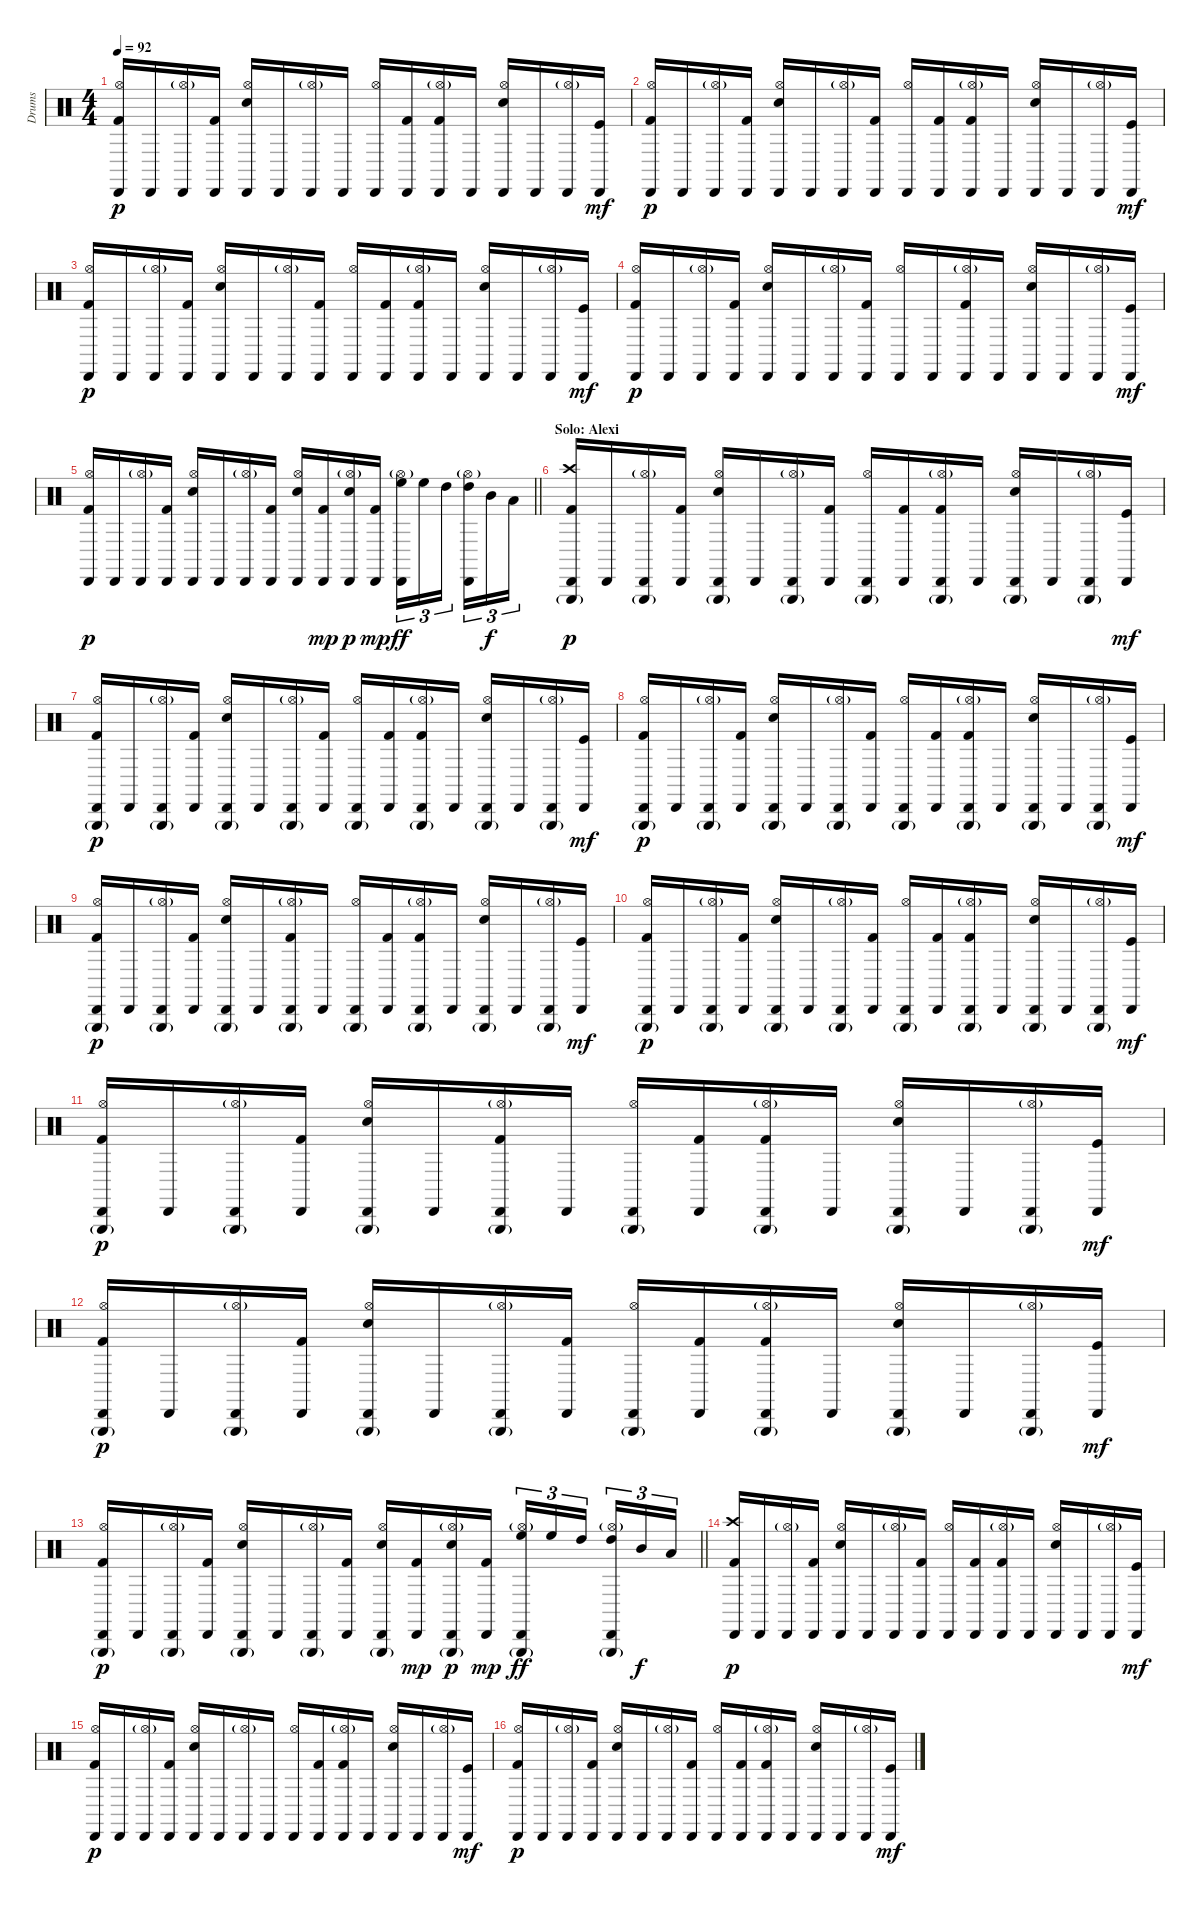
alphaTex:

\track ("Drums" "Drums") {instrument percussion}
\staff {score}
\articulation defaults
\ts (4 4)
\tempo 92
\clef neutral
\ks c
("Hi-Hat (open)" "Cabasa (hit)" "Kick (hit) 2").16{dy p} "Cabasa (hit)".16 ("Hi-Hat (open)"{g} "Cabasa (hit)").16 ("Cabasa (hit)" "Kick (hit) 2").16 ("Hi-Hat (open)" "Cabasa (hit)" "Electric Snare (hit)").16 "Cabasa (hit)".16 ("Hi-Hat (open)"{g} "Cabasa (hit)").16 "Cabasa (hit)".16 ("Hi-Hat (open)" "Cabasa (hit)").16 ("Cabasa (hit)" "Kick (hit) 2").16 ("Hi-Hat (open)"{g} "Cabasa (hit)" "Kick (hit) 2").16 "Cabasa (hit)".16 ("Hi-Hat (open)" "Cabasa (hit)" "Electric Snare (hit)").16 "Cabasa (hit)".16 ("Hi-Hat (open)"{g} "Cabasa (hit)").16 ("Cabasa (hit)" "Kick (hit)").16{dy mf} |
("Hi-Hat (open)" "Cabasa (hit)" "Kick (hit) 2").16{dy p} "Cabasa (hit)".16 ("Hi-Hat (open)"{g} "Cabasa (hit)").16 ("Cabasa (hit)" "Kick (hit) 2").16 ("Hi-Hat (open)" "Cabasa (hit)" "Electric Snare (hit)").16 "Cabasa (hit)".16 ("Hi-Hat (open)"{g} "Cabasa (hit)").16 ("Cabasa (hit)" "Kick (hit) 2").16 ("Hi-Hat (open)" "Cabasa (hit)").16 ("Cabasa (hit)" "Kick (hit) 2").16 ("Hi-Hat (open)"{g} "Cabasa (hit)" "Kick (hit) 2").16 "Cabasa (hit)".16 ("Hi-Hat (open)" "Cabasa (hit)" "Electric Snare (hit)").16 "Cabasa (hit)".16 ("Hi-Hat (open)"{g} "Cabasa (hit)").16 ("Cabasa (hit)" "Kick (hit)").16{dy mf} |
("Hi-Hat (open)" "Cabasa (hit)" "Kick (hit) 2").16{dy p} "Cabasa (hit)".16 ("Hi-Hat (open)"{g} "Cabasa (hit)").16 ("Cabasa (hit)" "Kick (hit) 2").16 ("Hi-Hat (open)" "Cabasa (hit)" "Electric Snare (hit)").16 "Cabasa (hit)".16 ("Hi-Hat (open)"{g} "Cabasa (hit)").16 ("Cabasa (hit)" "Kick (hit) 2").16 ("Hi-Hat (open)" "Cabasa (hit)").16 ("Cabasa (hit)" "Kick (hit) 2").16 ("Hi-Hat (open)"{g} "Cabasa (hit)" "Kick (hit) 2").16 "Cabasa (hit)".16 ("Hi-Hat (open)" "Cabasa (hit)" "Electric Snare (hit)").16 "Cabasa (hit)".16 ("Hi-Hat (open)"{g} "Cabasa (hit)").16 ("Cabasa (hit)" "Kick (hit)").16{dy mf} |
("Hi-Hat (open)" "Cabasa (hit)" "Kick (hit) 2").16{dy p} "Cabasa (hit)".16 ("Hi-Hat (open)"{g} "Cabasa (hit)").16 ("Cabasa (hit)" "Kick (hit) 2").16 ("Hi-Hat (open)" "Cabasa (hit)" "Electric Snare (hit)").16 "Cabasa (hit)".16 ("Hi-Hat (open)"{g} "Cabasa (hit)").16 ("Cabasa (hit)" "Kick (hit) 2").16 ("Hi-Hat (open)" "Cabasa (hit)").16 "Cabasa (hit)".16 ("Hi-Hat (open)"{g} "Cabasa (hit)" "Kick (hit) 2").16 "Cabasa (hit)".16 ("Hi-Hat (open)" "Cabasa (hit)" "Electric Snare (hit)").16 "Cabasa (hit)".16 ("Hi-Hat (open)"{g} "Cabasa (hit)").16 ("Cabasa (hit)" "Kick (hit)").16{dy mf} |
\barLineRight lightlight
("Hi-Hat (open)" "Cabasa (hit)" "Kick (hit) 2").16{dy p} "Cabasa (hit)".16 ("Hi-Hat (open)"{g} "Cabasa (hit)").16 ("Cabasa (hit)" "Kick (hit) 2").16 ("Hi-Hat (open)" "Cabasa (hit)" "Electric Snare (hit)").16 "Cabasa (hit)".16 ("Hi-Hat (open)"{g} "Cabasa (hit)").16 ("Cabasa (hit)" "Kick (hit) 2").16 ("Hi-Hat (open)" "Cabasa (hit)" "Electric Snare (hit)").16 ("Cabasa (hit)" "Kick (hit) 2").16{dy mp} ("Hi-Hat (open)"{g} "Cabasa (hit)" "Electric Snare (hit)").16{dy p} ("Cabasa (hit)" "Kick (hit) 2").16{dy mp} ("Hi-Hat (open)"{g} "Cabasa (hit)" "High Floor Tom (hit)").16{tu (3 2) dy ff} "High Floor Tom (hit)".16{tu (3 2)} "High Tom (hit)".16{tu (3 2)} ("Hi-Hat (open)"{g} "Cabasa (hit)" "High Tom (hit)").16{tu (3 2)} "Mid Tom (hit)".16{tu (3 2) dy f} "Low Tom (hit)".16{tu (3 2)} |
\section ("" "Solo: Alexi")
("Crash high (hit)" "Triangle (hit)"{g} "Cabasa (hit)" "Kick (hit) 2").16{dy p} "Cabasa (hit)".16 ("Triangle (hit)"{g} "Hi-Hat (open)"{g} "Cabasa (hit)").16 ("Cabasa (hit)" "Kick (hit) 2").16 ("Triangle (hit)"{g} "Hi-Hat (open)" "Cabasa (hit)" "Electric Snare (hit)").16 "Cabasa (hit)".16 ("Triangle (hit)"{g} "Hi-Hat (open)"{g} "Cabasa (hit)").16 ("Cabasa (hit)" "Kick (hit) 2").16 ("Triangle (hit)"{g} "Hi-Hat (open)" "Cabasa (hit)").16 ("Cabasa (hit)" "Kick (hit) 2").16 ("Triangle (hit)"{g} "Hi-Hat (open)"{g} "Cabasa (hit)" "Kick (hit) 2").16 "Cabasa (hit)".16 ("Triangle (hit)"{g} "Hi-Hat (open)" "Cabasa (hit)" "Electric Snare (hit)").16 "Cabasa (hit)".16 ("Triangle (hit)"{g} "Hi-Hat (open)"{g} "Cabasa (hit)").16 ("Cabasa (hit)" "Kick (hit)").16{dy mf} |
("Triangle (hit)"{g} "Hi-Hat (open)" "Cabasa (hit)" "Kick (hit) 2").16{dy p} "Cabasa (hit)".16 ("Triangle (hit)"{g} "Hi-Hat (open)"{g} "Cabasa (hit)").16 ("Cabasa (hit)" "Kick (hit) 2").16 ("Triangle (hit)"{g} "Hi-Hat (open)" "Cabasa (hit)" "Electric Snare (hit)").16 "Cabasa (hit)".16 ("Triangle (hit)"{g} "Hi-Hat (open)"{g} "Cabasa (hit)").16 ("Cabasa (hit)" "Kick (hit) 2").16 ("Triangle (hit)"{g} "Hi-Hat (open)" "Cabasa (hit)").16 ("Cabasa (hit)" "Kick (hit) 2").16 ("Triangle (hit)"{g} "Hi-Hat (open)"{g} "Cabasa (hit)" "Kick (hit) 2").16 "Cabasa (hit)".16 ("Triangle (hit)"{g} "Hi-Hat (open)" "Cabasa (hit)" "Electric Snare (hit)").16 "Cabasa (hit)".16 ("Triangle (hit)"{g} "Hi-Hat (open)"{g} "Cabasa (hit)").16 ("Cabasa (hit)" "Kick (hit)").16{dy mf} |
("Triangle (hit)"{g} "Hi-Hat (open)" "Cabasa (hit)" "Kick (hit) 2").16{dy p} "Cabasa (hit)".16 ("Triangle (hit)"{g} "Hi-Hat (open)"{g} "Cabasa (hit)").16 ("Cabasa (hit)" "Kick (hit) 2").16 ("Triangle (hit)"{g} "Hi-Hat (open)" "Cabasa (hit)" "Electric Snare (hit)").16 "Cabasa (hit)".16 ("Triangle (hit)"{g} "Hi-Hat (open)"{g} "Cabasa (hit)").16 ("Cabasa (hit)" "Kick (hit) 2").16 ("Triangle (hit)"{g} "Hi-Hat (open)" "Cabasa (hit)").16 ("Cabasa (hit)" "Kick (hit) 2").16 ("Triangle (hit)"{g} "Hi-Hat (open)"{g} "Cabasa (hit)" "Kick (hit) 2").16 "Cabasa (hit)".16 ("Triangle (hit)"{g} "Hi-Hat (open)" "Cabasa (hit)" "Electric Snare (hit)").16 "Cabasa (hit)".16 ("Triangle (hit)"{g} "Hi-Hat (open)"{g} "Cabasa (hit)").16 ("Cabasa (hit)" "Kick (hit)").16{dy mf} |
("Triangle (hit)"{g} "Hi-Hat (open)" "Cabasa (hit)" "Kick (hit) 2").16{dy p} "Cabasa (hit)".16 ("Triangle (hit)"{g} "Hi-Hat (open)"{g} "Cabasa (hit)").16 ("Cabasa (hit)" "Kick (hit) 2").16 ("Triangle (hit)"{g} "Hi-Hat (open)" "Cabasa (hit)" "Electric Snare (hit)").16 "Cabasa (hit)".16 ("Triangle (hit)"{g} "Hi-Hat (open)"{g} "Cabasa (hit)" "Kick (hit) 2").16 "Cabasa (hit)".16 ("Triangle (hit)"{g} "Hi-Hat (open)" "Cabasa (hit)").16 ("Cabasa (hit)" "Kick (hit) 2").16 ("Triangle (hit)"{g} "Hi-Hat (open)"{g} "Cabasa (hit)" "Kick (hit) 2").16 "Cabasa (hit)".16 ("Triangle (hit)"{g} "Hi-Hat (open)" "Cabasa (hit)" "Electric Snare (hit)").16 "Cabasa (hit)".16 ("Triangle (hit)"{g} "Hi-Hat (open)"{g} "Cabasa (hit)").16 ("Cabasa (hit)" "Kick (hit)").16{dy mf} |
("Triangle (hit)"{g} "Hi-Hat (open)" "Cabasa (hit)" "Kick (hit) 2").16{dy p} "Cabasa (hit)".16 ("Triangle (hit)"{g} "Hi-Hat (open)"{g} "Cabasa (hit)").16 ("Cabasa (hit)" "Kick (hit) 2").16 ("Triangle (hit)"{g} "Hi-Hat (open)" "Cabasa (hit)" "Electric Snare (hit)").16 "Cabasa (hit)".16 ("Triangle (hit)"{g} "Hi-Hat (open)"{g} "Cabasa (hit)").16 ("Cabasa (hit)" "Kick (hit) 2").16 ("Triangle (hit)"{g} "Hi-Hat (open)" "Cabasa (hit)").16 ("Cabasa (hit)" "Kick (hit) 2").16 ("Triangle (hit)"{g} "Hi-Hat (open)"{g} "Cabasa (hit)" "Kick (hit) 2").16 "Cabasa (hit)".16 ("Triangle (hit)"{g} "Hi-Hat (open)" "Cabasa (hit)" "Electric Snare (hit)").16 "Cabasa (hit)".16 ("Triangle (hit)"{g} "Hi-Hat (open)"{g} "Cabasa (hit)").16 ("Cabasa (hit)" "Kick (hit)").16{dy mf} |
("Triangle (hit)"{g} "Hi-Hat (open)" "Cabasa (hit)" "Kick (hit) 2").16{dy p} "Cabasa (hit)".16 ("Triangle (hit)"{g} "Hi-Hat (open)"{g} "Cabasa (hit)").16 ("Cabasa (hit)" "Kick (hit) 2").16 ("Triangle (hit)"{g} "Hi-Hat (open)" "Cabasa (hit)" "Electric Snare (hit)").16 "Cabasa (hit)".16 ("Triangle (hit)"{g} "Hi-Hat (open)"{g} "Cabasa (hit)" "Kick (hit) 2").16 "Cabasa (hit)".16 ("Triangle (hit)"{g} "Hi-Hat (open)" "Cabasa (hit)").16 ("Cabasa (hit)" "Kick (hit) 2").16 ("Triangle (hit)"{g} "Hi-Hat (open)"{g} "Cabasa (hit)" "Kick (hit) 2").16 "Cabasa (hit)".16 ("Triangle (hit)"{g} "Hi-Hat (open)" "Cabasa (hit)" "Electric Snare (hit)").16 "Cabasa (hit)".16 ("Triangle (hit)"{g} "Hi-Hat (open)"{g} "Cabasa (hit)").16 ("Cabasa (hit)" "Kick (hit)").16{dy mf} |
("Triangle (hit)"{g} "Hi-Hat (open)" "Cabasa (hit)" "Kick (hit) 2").16{dy p} "Cabasa (hit)".16 ("Triangle (hit)"{g} "Hi-Hat (open)"{g} "Cabasa (hit)").16 ("Cabasa (hit)" "Kick (hit) 2").16 ("Triangle (hit)"{g} "Hi-Hat (open)" "Cabasa (hit)" "Electric Snare (hit)").16 "Cabasa (hit)".16 ("Triangle (hit)"{g} "Hi-Hat (open)"{g} "Cabasa (hit)").16 ("Cabasa (hit)" "Kick (hit) 2").16 ("Triangle (hit)"{g} "Hi-Hat (open)" "Cabasa (hit)").16 ("Cabasa (hit)" "Kick (hit) 2").16 ("Triangle (hit)"{g} "Hi-Hat (open)"{g} "Cabasa (hit)" "Kick (hit) 2").16 "Cabasa (hit)".16 ("Triangle (hit)"{g} "Hi-Hat (open)" "Cabasa (hit)" "Electric Snare (hit)").16 "Cabasa (hit)".16 ("Triangle (hit)"{g} "Hi-Hat (open)"{g} "Cabasa (hit)").16 ("Cabasa (hit)" "Kick (hit)").16{dy mf} |
\barLineRight lightlight
("Triangle (hit)"{g} "Hi-Hat (open)" "Cabasa (hit)" "Kick (hit) 2").16{dy p} "Cabasa (hit)".16 ("Triangle (hit)"{g} "Hi-Hat (open)"{g} "Cabasa (hit)").16 ("Cabasa (hit)" "Kick (hit) 2").16 ("Triangle (hit)"{g} "Hi-Hat (open)" "Cabasa (hit)" "Electric Snare (hit)").16 "Cabasa (hit)".16 ("Triangle (hit)"{g} "Hi-Hat (open)"{g} "Cabasa (hit)").16 ("Cabasa (hit)" "Kick (hit) 2").16 ("Triangle (hit)"{g} "Hi-Hat (open)" "Cabasa (hit)" "Electric Snare (hit)").16 ("Cabasa (hit)" "Kick (hit) 2").16{dy mp} ("Triangle (hit)"{g} "Hi-Hat (open)"{g} "Cabasa (hit)" "Electric Snare (hit)").16{dy p} ("Cabasa (hit)" "Kick (hit) 2").16{dy mp} ("Triangle (hit)"{g} "Hi-Hat (open)"{g} "Cabasa (hit)" "High Floor Tom (hit)").16{tu (3 2) dy ff} "High Floor Tom (hit)".16{tu (3 2)} "High Tom (hit)".16{tu (3 2)} ("Triangle (hit)"{g} "Hi-Hat (open)"{g} "Cabasa (hit)" "High Tom (hit)").16{tu (3 2)} "Mid Tom (hit)".16{tu (3 2) dy f} "Low Tom (hit)".16{tu (3 2)} |
("Crash high (hit)" "Cabasa (hit)" "Kick (hit) 2").16{dy p} "Cabasa (hit)".16 ("Hi-Hat (open)"{g} "Cabasa (hit)").16 ("Cabasa (hit)" "Kick (hit) 2").16 ("Hi-Hat (open)" "Cabasa (hit)" "Electric Snare (hit)").16 "Cabasa (hit)".16 ("Hi-Hat (open)"{g} "Cabasa (hit)").16 ("Cabasa (hit)" "Kick (hit) 2").16 ("Hi-Hat (open)" "Cabasa (hit)").16 ("Cabasa (hit)" "Kick (hit) 2").16 ("Hi-Hat (open)"{g} "Cabasa (hit)" "Kick (hit) 2").16 "Cabasa (hit)".16 ("Hi-Hat (open)" "Cabasa (hit)" "Electric Snare (hit)").16 "Cabasa (hit)".16 ("Hi-Hat (open)"{g} "Cabasa (hit)").16 ("Cabasa (hit)" "Kick (hit)").16{dy mf} |
("Hi-Hat (open)" "Cabasa (hit)" "Kick (hit) 2").16{dy p} "Cabasa (hit)".16 ("Hi-Hat (open)"{g} "Cabasa (hit)").16 ("Cabasa (hit)" "Kick (hit) 2").16 ("Hi-Hat (open)" "Cabasa (hit)" "Electric Snare (hit)").16 "Cabasa (hit)".16 ("Hi-Hat (open)"{g} "Cabasa (hit)").16 "Cabasa (hit)".16 ("Hi-Hat (open)" "Cabasa (hit)").16 ("Cabasa (hit)" "Kick (hit) 2").16 ("Hi-Hat (open)"{g} "Cabasa (hit)" "Kick (hit) 2").16 "Cabasa (hit)".16 ("Hi-Hat (open)" "Cabasa (hit)" "Electric Snare (hit)").16 "Cabasa (hit)".16 ("Hi-Hat (open)"{g} "Cabasa (hit)").16 ("Cabasa (hit)" "Kick (hit)").16{dy mf} |
("Hi-Hat (open)" "Cabasa (hit)" "Kick (hit) 2").16{dy p} "Cabasa (hit)".16 ("Hi-Hat (open)"{g} "Cabasa (hit)").16 ("Cabasa (hit)" "Kick (hit) 2").16 ("Hi-Hat (open)" "Cabasa (hit)" "Electric Snare (hit)").16 "Cabasa (hit)".16 ("Hi-Hat (open)"{g} "Cabasa (hit)").16 ("Cabasa (hit)" "Kick (hit) 2").16 ("Hi-Hat (open)" "Cabasa (hit)").16 ("Cabasa (hit)" "Kick (hit) 2").16 ("Hi-Hat (open)"{g} "Cabasa (hit)" "Kick (hit) 2").16 "Cabasa (hit)".16 ("Hi-Hat (open)" "Cabasa (hit)" "Electric Snare (hit)").16 "Cabasa (hit)".16 ("Hi-Hat (open)"{g} "Cabasa (hit)").16 ("Cabasa (hit)" "Kick (hit)").16{dy mf}
